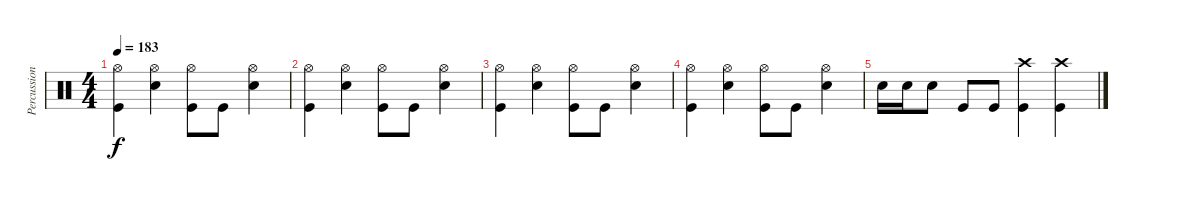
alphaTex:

\track ("Percussion" "Percussion") {instrument percussion}
\staff {score}
\articulation defaults
\ts (4 4)
\tempo 183
\clef neutral
\ks c
("Hi-Hat (open)" "Kick (hit)").4{dy f} ("Hi-Hat (open)" "Electric Snare (hit)").4 ("Hi-Hat (open)" "Kick (hit)").8 "Kick (hit)".8 ("Hi-Hat (open)" "Electric Snare (hit)").4 |
("Hi-Hat (open)" "Kick (hit)").4 ("Hi-Hat (open)" "Electric Snare (hit)").4 ("Hi-Hat (open)" "Kick (hit)").8 "Kick (hit)".8 ("Hi-Hat (open)" "Electric Snare (hit)").4 |
("Hi-Hat (open)" "Kick (hit)").4 ("Hi-Hat (open)" "Electric Snare (hit)").4 ("Hi-Hat (open)" "Kick (hit)").8 "Kick (hit)".8 ("Hi-Hat (open)" "Electric Snare (hit)").4 |
("Hi-Hat (open)" "Kick (hit)").4 ("Hi-Hat (open)" "Electric Snare (hit)").4 ("Hi-Hat (open)" "Kick (hit)").8 "Kick (hit)".8 ("Hi-Hat (open)" "Electric Snare (hit)").4 |
"Electric Snare (hit)".16 "Electric Snare (hit)".16 "Electric Snare (hit)".8 "Kick (hit)".8 "Kick (hit)".8 ("Crash high (hit)" "Kick (hit)").4 ("Crash high (hit)" "Kick (hit)").4
